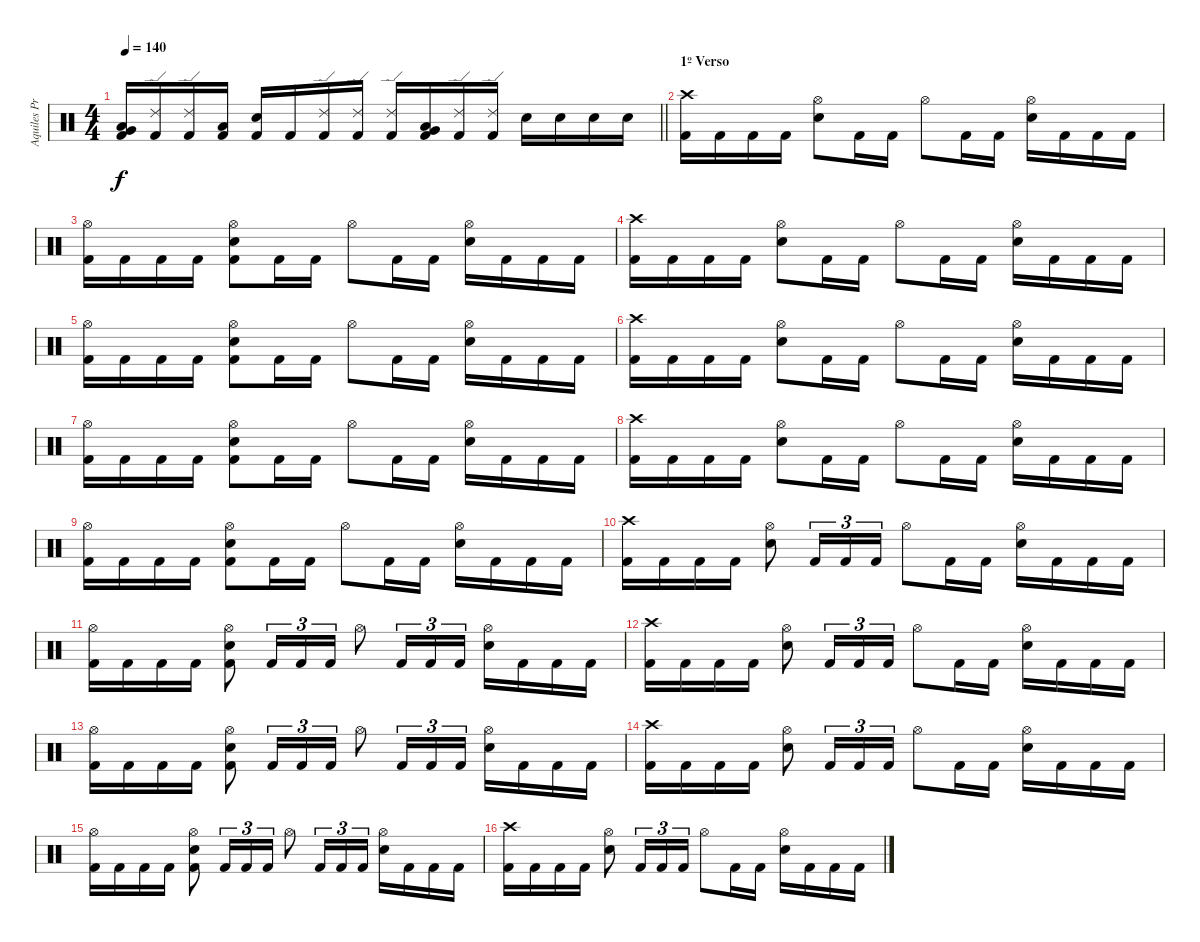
\track ("Aquiles Priester" "Aquiles Pr") {instrument percussion}
\staff {score}
\articulation defaults
\ts (4 4)
\tempo 140
\clef neutral
\barLineRight lightlight
\ks c
("Low Floor Tom (hit)" "Very Low Tom (hit)" "Kick (hit) 2").16{dy f} ("Ride (edge) 2" "Kick (hit) 2").16 ("Ride (edge) 2" "Kick (hit) 2").16 ("Low Floor Tom (hit)" "Kick (hit) 2").16 ("Electric Snare (hit)" "Kick (hit) 2").16 "Kick (hit) 2".16 ("Ride (edge) 2" "Kick (hit) 2").16 ("Ride (edge) 2" "Kick (hit) 2").16 ("Ride (edge) 2" "Kick (hit) 2").16 ("Very Low Tom (hit)" "Low Floor Tom (hit)" "Kick (hit) 2").16 ("Ride (edge) 2" "Kick (hit) 2").16 ("Ride (edge) 2" "Kick (hit) 2").16 "Electric Snare (hit)".16 "Electric Snare (hit)".16 "Electric Snare (hit)".16 "Electric Snare (hit)".16 |
\section ("" "1º Verso")
("Crash high (hit)" "Kick (hit) 2").16 "Kick (hit) 2".16 "Kick (hit) 2".16 "Kick (hit) 2".16 ("Hi-Hat (open)" "Electric Snare (hit)").8 "Kick (hit) 2".16 "Kick (hit) 2".16 "Hi-Hat (open)".8 "Kick (hit) 2".16 "Kick (hit) 2".16 ("Hi-Hat (open)" "Electric Snare (hit)").16 "Kick (hit) 2".16 "Kick (hit) 2".16 "Kick (hit) 2".16 |
("Hi-Hat (open)" "Kick (hit) 2").16 "Kick (hit) 2".16 "Kick (hit) 2".16 "Kick (hit) 2".16 ("Hi-Hat (open)" "Electric Snare (hit)" "Kick (hit) 2").8 "Kick (hit) 2".16 "Kick (hit) 2".16 "Hi-Hat (open)".8 "Kick (hit) 2".16 "Kick (hit) 2".16 ("Hi-Hat (open)" "Electric Snare (hit)").16 "Kick (hit) 2".16 "Kick (hit) 2".16 "Kick (hit) 2".16 |
("Crash high (hit)" "Kick (hit) 2").16 "Kick (hit) 2".16 "Kick (hit) 2".16 "Kick (hit) 2".16 ("Hi-Hat (open)" "Electric Snare (hit)").8 "Kick (hit) 2".16 "Kick (hit) 2".16 "Hi-Hat (open)".8 "Kick (hit) 2".16 "Kick (hit) 2".16 ("Hi-Hat (open)" "Electric Snare (hit)").16 "Kick (hit) 2".16 "Kick (hit) 2".16 "Kick (hit) 2".16 |
("Hi-Hat (open)" "Kick (hit) 2").16 "Kick (hit) 2".16 "Kick (hit) 2".16 "Kick (hit) 2".16 ("Hi-Hat (open)" "Electric Snare (hit)" "Kick (hit) 2").8 "Kick (hit) 2".16 "Kick (hit) 2".16 "Hi-Hat (open)".8 "Kick (hit) 2".16 "Kick (hit) 2".16 ("Hi-Hat (open)" "Electric Snare (hit)").16 "Kick (hit) 2".16 "Kick (hit) 2".16 "Kick (hit) 2".16 |
("Crash high (hit)" "Kick (hit) 2").16 "Kick (hit) 2".16 "Kick (hit) 2".16 "Kick (hit) 2".16 ("Hi-Hat (open)" "Electric Snare (hit)").8 "Kick (hit) 2".16 "Kick (hit) 2".16 "Hi-Hat (open)".8 "Kick (hit) 2".16 "Kick (hit) 2".16 ("Hi-Hat (open)" "Electric Snare (hit)").16 "Kick (hit) 2".16 "Kick (hit) 2".16 "Kick (hit) 2".16 |
("Hi-Hat (open)" "Kick (hit) 2").16 "Kick (hit) 2".16 "Kick (hit) 2".16 "Kick (hit) 2".16 ("Hi-Hat (open)" "Electric Snare (hit)" "Kick (hit) 2").8 "Kick (hit) 2".16 "Kick (hit) 2".16 "Hi-Hat (open)".8 "Kick (hit) 2".16 "Kick (hit) 2".16 ("Hi-Hat (open)" "Electric Snare (hit)").16 "Kick (hit) 2".16 "Kick (hit) 2".16 "Kick (hit) 2".16 |
("Crash high (hit)" "Kick (hit) 2").16 "Kick (hit) 2".16 "Kick (hit) 2".16 "Kick (hit) 2".16 ("Hi-Hat (open)" "Electric Snare (hit)").8 "Kick (hit) 2".16 "Kick (hit) 2".16 "Hi-Hat (open)".8 "Kick (hit) 2".16 "Kick (hit) 2".16 ("Hi-Hat (open)" "Electric Snare (hit)").16 "Kick (hit) 2".16 "Kick (hit) 2".16 "Kick (hit) 2".16 |
("Hi-Hat (open)" "Kick (hit) 2").16 "Kick (hit) 2".16 "Kick (hit) 2".16 "Kick (hit) 2".16 ("Hi-Hat (open)" "Electric Snare (hit)" "Kick (hit) 2").8 "Kick (hit) 2".16 "Kick (hit) 2".16 "Hi-Hat (open)".8 "Kick (hit) 2".16 "Kick (hit) 2".16 ("Hi-Hat (open)" "Electric Snare (hit)").16 "Kick (hit) 2".16 "Kick (hit) 2".16 "Kick (hit) 2".16 |
("Crash high (hit)" "Kick (hit) 2").16 "Kick (hit) 2".16 "Kick (hit) 2".16 "Kick (hit) 2".16 ("Hi-Hat (open)" "Electric Snare (hit)").8 "Kick (hit) 2".16{tu (3 2)} "Kick (hit) 2".16{tu (3 2)} "Kick (hit) 2".16{tu (3 2)} "Hi-Hat (open)".8 "Kick (hit) 2".16 "Kick (hit) 2".16 ("Hi-Hat (open)" "Electric Snare (hit)").16 "Kick (hit) 2".16 "Kick (hit) 2".16 "Kick (hit) 2".16 |
("Hi-Hat (open)" "Kick (hit) 2").16 "Kick (hit) 2".16 "Kick (hit) 2".16 "Kick (hit) 2".16 ("Hi-Hat (open)" "Electric Snare (hit)" "Kick (hit) 2").8 "Kick (hit) 2".16{tu (3 2)} "Kick (hit) 2".16{tu (3 2)} "Kick (hit) 2".16{tu (3 2)} "Hi-Hat (open)".8 "Kick (hit) 2".16{tu (3 2)} "Kick (hit) 2".16{tu (3 2)} "Kick (hit) 2".16{tu (3 2)} ("Hi-Hat (open)" "Electric Snare (hit)").16 "Kick (hit) 2".16 "Kick (hit) 2".16 "Kick (hit) 2".16 |
("Crash high (hit)" "Kick (hit) 2").16 "Kick (hit) 2".16 "Kick (hit) 2".16 "Kick (hit) 2".16 ("Hi-Hat (open)" "Electric Snare (hit)").8 "Kick (hit) 2".16{tu (3 2)} "Kick (hit) 2".16{tu (3 2)} "Kick (hit) 2".16{tu (3 2)} "Hi-Hat (open)".8 "Kick (hit) 2".16 "Kick (hit) 2".16 ("Hi-Hat (open)" "Electric Snare (hit)").16 "Kick (hit) 2".16 "Kick (hit) 2".16 "Kick (hit) 2".16 |
("Hi-Hat (open)" "Kick (hit) 2").16 "Kick (hit) 2".16 "Kick (hit) 2".16 "Kick (hit) 2".16 ("Hi-Hat (open)" "Electric Snare (hit)" "Kick (hit) 2").8 "Kick (hit) 2".16{tu (3 2)} "Kick (hit) 2".16{tu (3 2)} "Kick (hit) 2".16{tu (3 2)} "Hi-Hat (open)".8 "Kick (hit) 2".16{tu (3 2)} "Kick (hit) 2".16{tu (3 2)} "Kick (hit) 2".16{tu (3 2)} ("Hi-Hat (open)" "Electric Snare (hit)").16 "Kick (hit) 2".16 "Kick (hit) 2".16 "Kick (hit) 2".16 |
("Crash high (hit)" "Kick (hit) 2").16 "Kick (hit) 2".16 "Kick (hit) 2".16 "Kick (hit) 2".16 ("Hi-Hat (open)" "Electric Snare (hit)").8 "Kick (hit) 2".16{tu (3 2)} "Kick (hit) 2".16{tu (3 2)} "Kick (hit) 2".16{tu (3 2)} "Hi-Hat (open)".8 "Kick (hit) 2".16 "Kick (hit) 2".16 ("Hi-Hat (open)" "Electric Snare (hit)").16 "Kick (hit) 2".16 "Kick (hit) 2".16 "Kick (hit) 2".16 |
("Hi-Hat (open)" "Kick (hit) 2").16 "Kick (hit) 2".16 "Kick (hit) 2".16 "Kick (hit) 2".16 ("Hi-Hat (open)" "Electric Snare (hit)" "Kick (hit) 2").8 "Kick (hit) 2".16{tu (3 2)} "Kick (hit) 2".16{tu (3 2)} "Kick (hit) 2".16{tu (3 2)} "Hi-Hat (open)".8 "Kick (hit) 2".16{tu (3 2)} "Kick (hit) 2".16{tu (3 2)} "Kick (hit) 2".16{tu (3 2)} ("Hi-Hat (open)" "Electric Snare (hit)").16 "Kick (hit) 2".16 "Kick (hit) 2".16 "Kick (hit) 2".16 |
("Crash high (hit)" "Kick (hit) 2").16 "Kick (hit) 2".16 "Kick (hit) 2".16 "Kick (hit) 2".16 ("Hi-Hat (open)" "Electric Snare (hit)").8 "Kick (hit) 2".16{tu (3 2)} "Kick (hit) 2".16{tu (3 2)} "Kick (hit) 2".16{tu (3 2)} "Hi-Hat (open)".8 "Kick (hit) 2".16 "Kick (hit) 2".16 ("Hi-Hat (open)" "Electric Snare (hit)").16 "Kick (hit) 2".16 "Kick (hit) 2".16 "Kick (hit) 2".16
